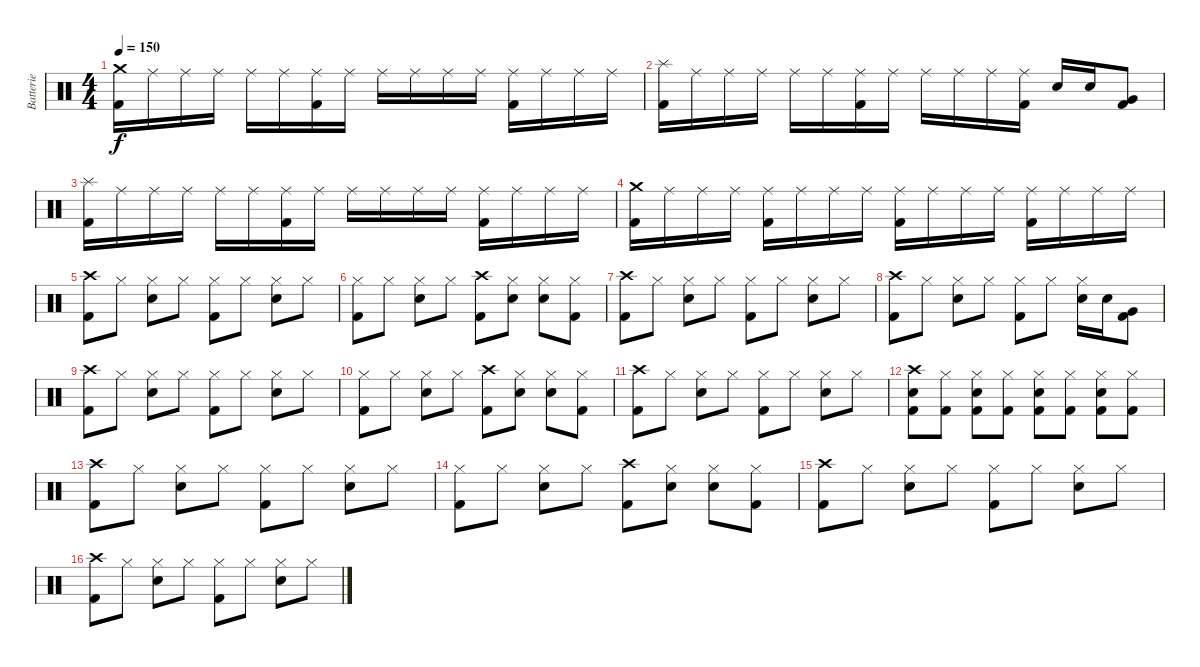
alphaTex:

\track ("Batterie" "Batterie") {instrument percussion}
\staff {score}
\articulation defaults
\ts (4 4)
\tempo 150
\clef neutral
\ks c
("Crash medium (hit)" "Kick (hit) 2").16{dy f} "Ride (middle)".16 "Ride (middle)".16 "Ride (middle)".16 "Ride (middle)".16 "Ride (middle)".16 ("Ride (middle)" "Kick (hit) 2").16 "Ride (middle)".16 "Ride (middle)".16 "Ride (middle)".16 "Ride (middle)".16 "Ride (middle)".16 ("Ride (middle)" "Kick (hit) 2").16 "Ride (middle)".16 "Ride (middle)".16 "Ride (middle)".16 |
("Splash (hit)" "Kick (hit) 2").16 "Ride (middle)".16 "Ride (middle)".16 "Ride (middle)".16 "Ride (middle)".16 "Ride (middle)".16 ("Ride (middle)" "Kick (hit) 2").16 "Ride (middle)".16 "Ride (middle)".16 "Ride (middle)".16 "Ride (middle)".16 ("Ride (middle)" "Kick (hit) 2").16 "Snare (hit) 2".16 "Snare (hit) 2".16 ("Very Low Tom (hit)" "Kick (hit) 2").8 |
("Splash (hit)" "Kick (hit) 2").16 "Ride (middle)".16 "Ride (middle)".16 "Ride (middle)".16 "Ride (middle)".16 "Ride (middle)".16 ("Ride (middle)" "Kick (hit) 2").16 "Ride (middle)".16 "Ride (middle)".16 "Ride (middle)".16 "Ride (middle)".16 "Ride (middle)".16 ("Ride (middle)" "Kick (hit) 2").16 "Ride (middle)".16 "Ride (middle)".16 "Ride (middle)".16 |
("Crash medium (hit)" "Kick (hit) 2").16 "Ride (middle)".16 "Ride (middle)".16 "Ride (middle)".16 ("Ride (middle)" "Kick (hit) 2").16 "Ride (middle)".16 "Ride (middle)".16 "Ride (middle)".16 ("Ride (middle)" "Kick (hit) 2").16 "Ride (middle)".16 "Ride (middle)".16 "Ride (middle)".16 ("Ride (middle)" "Kick (hit) 2").16 "Ride (middle)".16 "Ride (middle)".16 "Ride (middle)".16 |
("Crash high (hit)" "Kick (hit) 2").8 "Hi-Hat (closed)".8 ("Hi-Hat (closed)" "Snare (hit) 2").8 "Hi-Hat (closed)".8 ("Hi-Hat (closed)" "Kick (hit) 2").8 "Hi-Hat (closed)".8 ("Hi-Hat (closed)" "Snare (hit) 2").8 "Hi-Hat (closed)".8 |
("Hi-Hat (closed)" "Kick (hit) 2").8 "Hi-Hat (closed)".8 ("Hi-Hat (closed)" "Snare (hit) 2").8 "Hi-Hat (closed)".8 ("Crash high (hit)" "Kick (hit) 2").8 ("Hi-Hat (closed)" "Snare (hit) 2").8 ("Hi-Hat (closed)" "Snare (hit) 2").8 ("Hi-Hat (closed)" "Kick (hit) 2").8 |
("Crash high (hit)" "Kick (hit) 2").8 "Hi-Hat (closed)".8 ("Hi-Hat (closed)" "Snare (hit) 2").8 "Hi-Hat (closed)".8 ("Hi-Hat (closed)" "Kick (hit) 2").8 "Hi-Hat (closed)".8 ("Hi-Hat (closed)" "Snare (hit) 2").8 "Hi-Hat (closed)".8 |
("Crash high (hit)" "Kick (hit) 2").8 "Hi-Hat (closed)".8 ("Hi-Hat (closed)" "Snare (hit) 2").8 "Hi-Hat (closed)".8 ("Hi-Hat (closed)" "Kick (hit) 2").8 "Hi-Hat (closed)".8 ("Hi-Hat (closed)" "Snare (hit) 2").16 "Snare (hit) 2".16 ("Very Low Tom (hit)" "Kick (hit) 2").8 |
("Crash high (hit)" "Kick (hit) 2").8 "Hi-Hat (closed)".8 ("Hi-Hat (closed)" "Snare (hit) 2").8 "Hi-Hat (closed)".8 ("Hi-Hat (closed)" "Kick (hit) 2").8 "Hi-Hat (closed)".8 ("Hi-Hat (closed)" "Snare (hit) 2").8 "Hi-Hat (closed)".8 |
("Hi-Hat (closed)" "Kick (hit) 2").8 "Hi-Hat (closed)".8 ("Hi-Hat (closed)" "Snare (hit) 2").8 "Hi-Hat (closed)".8 ("Crash high (hit)" "Kick (hit) 2").8 ("Hi-Hat (closed)" "Snare (hit) 2").8 ("Hi-Hat (closed)" "Snare (hit) 2").8 ("Hi-Hat (closed)" "Kick (hit) 2").8 |
("Crash high (hit)" "Kick (hit) 2").8 "Hi-Hat (closed)".8 ("Hi-Hat (closed)" "Snare (hit) 2").8 "Hi-Hat (closed)".8 ("Hi-Hat (closed)" "Kick (hit) 2").8 "Hi-Hat (closed)".8 ("Hi-Hat (closed)" "Snare (hit) 2").8 "Hi-Hat (closed)".8 |
("Crash high (hit)" "Snare (hit) 2" "Kick (hit) 2").8 ("Hi-Hat (closed)" "Kick (hit) 2").8 ("Hi-Hat (closed)" "Snare (hit) 2" "Kick (hit) 2").8 ("Hi-Hat (closed)" "Kick (hit) 2").8 ("Hi-Hat (closed)" "Snare (hit) 2" "Kick (hit) 2").8 ("Hi-Hat (closed)" "Kick (hit) 2").8 ("Hi-Hat (closed)" "Snare (hit) 2" "Kick (hit) 2").8 ("Hi-Hat (closed)" "Kick (hit) 2").8 |
("Crash high (hit)" "Kick (hit) 2").8 "Hi-Hat (closed)".8 ("Hi-Hat (closed)" "Snare (hit) 2").8 "Hi-Hat (closed)".8 ("Hi-Hat (closed)" "Kick (hit) 2").8 "Hi-Hat (closed)".8 ("Hi-Hat (closed)" "Snare (hit) 2").8 "Hi-Hat (closed)".8 |
("Hi-Hat (closed)" "Kick (hit) 2").8 "Hi-Hat (closed)".8 ("Hi-Hat (closed)" "Snare (hit) 2").8 "Hi-Hat (closed)".8 ("Crash high (hit)" "Kick (hit) 2").8 ("Hi-Hat (closed)" "Snare (hit) 2").8 ("Hi-Hat (closed)" "Snare (hit) 2").8 ("Hi-Hat (closed)" "Kick (hit) 2").8 |
("Crash high (hit)" "Kick (hit) 2").8 "Hi-Hat (closed)".8 ("Hi-Hat (closed)" "Snare (hit) 2").8 "Hi-Hat (closed)".8 ("Hi-Hat (closed)" "Kick (hit) 2").8 "Hi-Hat (closed)".8 ("Hi-Hat (closed)" "Snare (hit) 2").8 "Hi-Hat (closed)".8 |
("Crash high (hit)" "Kick (hit) 2").8 "Hi-Hat (closed)".8 ("Hi-Hat (closed)" "Snare (hit) 2").8 "Hi-Hat (closed)".8 ("Hi-Hat (closed)" "Kick (hit) 2").8 "Hi-Hat (closed)".8 ("Hi-Hat (closed)" "Snare (hit) 2").8 "Hi-Hat (closed)".8
